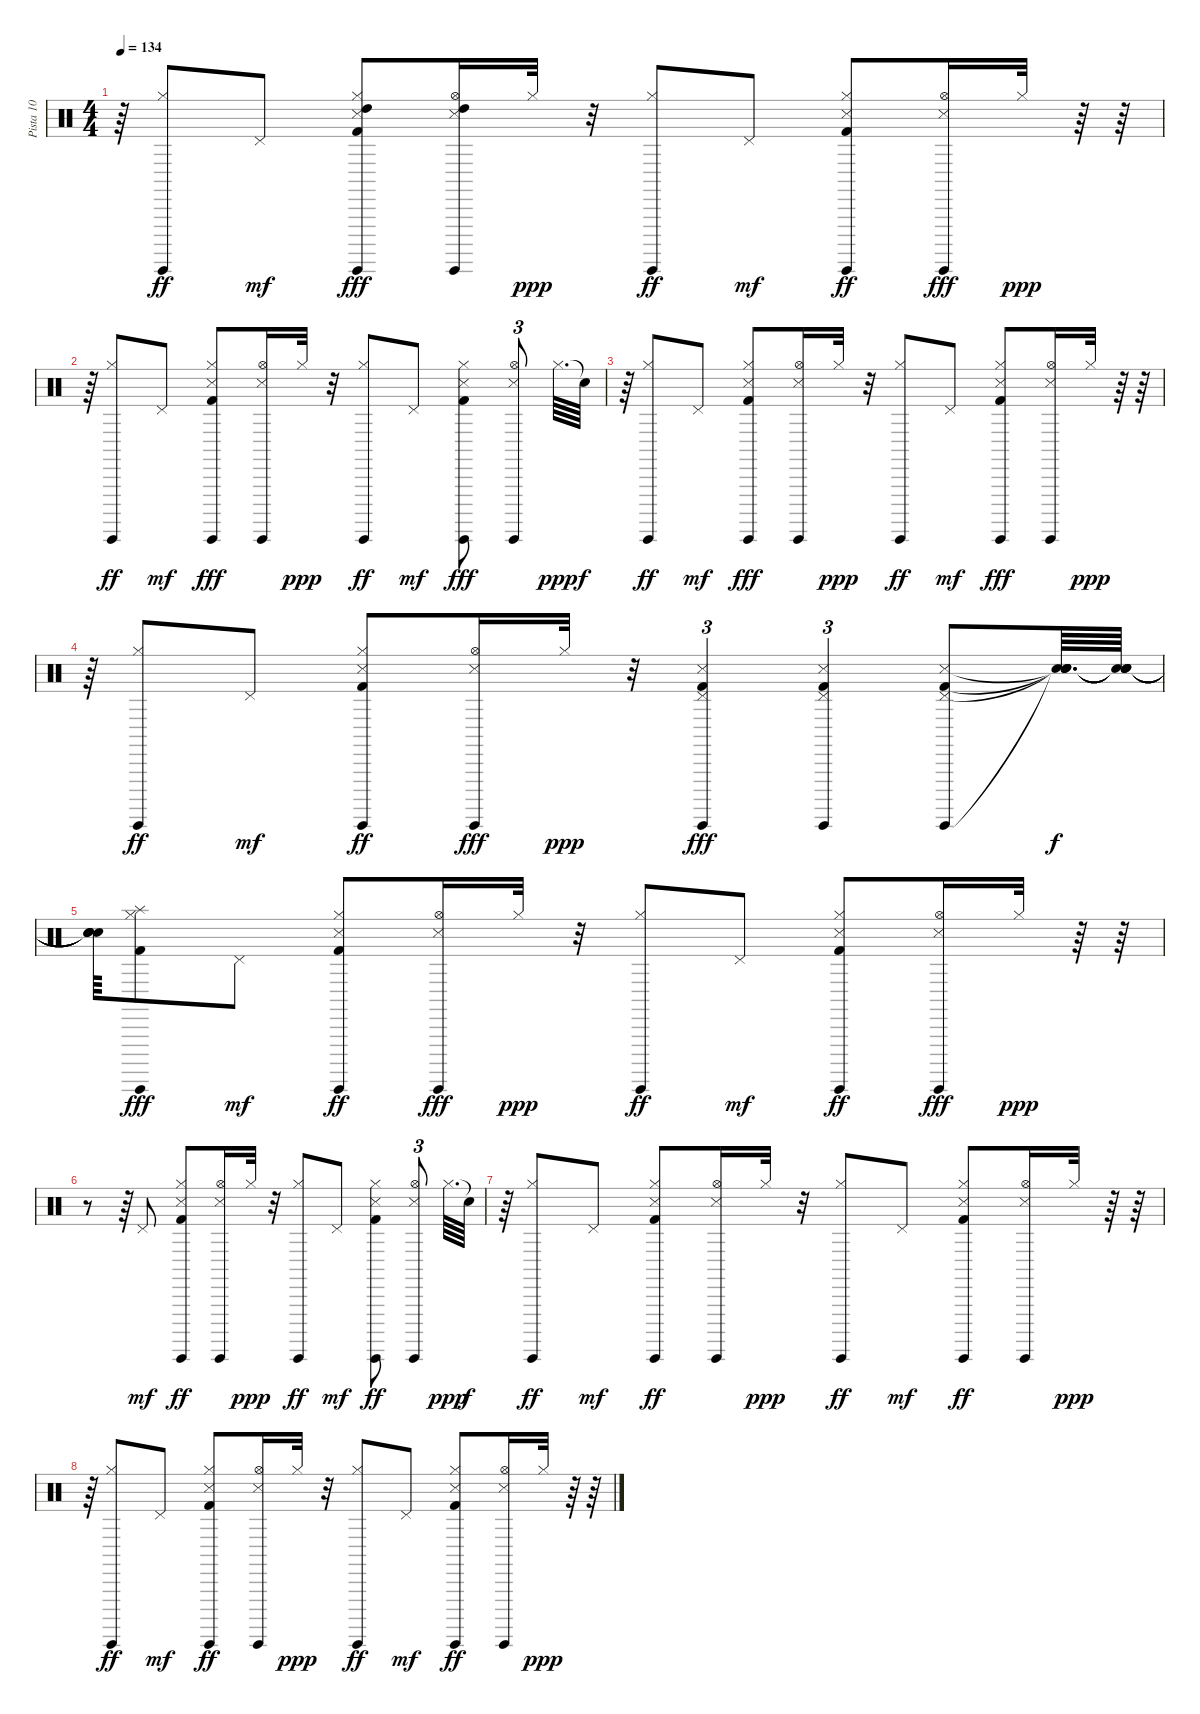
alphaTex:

\track ("Pista 10" "Pista 10") {instrument percussion}
\staff {score}
\articulation defaults
\ts (4 4)
\tempo 134
\clef neutral
\ks c
r.64{dy ppp} ("Hi-Hat (closed)" "Guiro (hit)").8{dy ff} "Pedal Hi-Hat (hit)".8{dy mf} ("Hi-Hat (closed)" "Guiro (hit)" "Snare (side stick) 3" "Kick (hit) 2" "High Tom (hit)").8{dy fff} ("Hi-Hat (open)" "Guiro (hit)" "Snare (side stick) 3" "High Tom (hit)").16 "Hi-Hat (closed)".32{dy ppp} r.32 ("Hi-Hat (closed)" "Guiro (hit)").8{dy ff} "Pedal Hi-Hat (hit)".8{dy mf} ("Hi-Hat (closed)" "Guiro (hit)" "Snare (side stick) 3" "Kick (hit) 2").8{dy ff} ("Hi-Hat (open)" "Guiro (hit)" "Snare (side stick) 3").16{dy fff} "Hi-Hat (closed)".32{dy ppp} r.64 r.64 |
r.64 ("Guiro (hit)" "Hi-Hat (closed)").8{dy ff} "Pedal Hi-Hat (hit)".8{dy mf} ("Guiro (hit)" "Hi-Hat (closed)" "Kick (hit) 2" "Snare (side stick) 3").8{dy fff} ("Guiro (hit)" "Hi-Hat (open)" "Snare (side stick) 3").16 "Hi-Hat (closed)".32{dy ppp} r.32 ("Guiro (hit)" "Hi-Hat (closed)").8{dy ff} "Pedal Hi-Hat (hit)".8{dy mf} ("Guiro (hit)" "Hi-Hat (closed)" "Kick (hit) 2" "Snare (side stick) 3").8{dy fff} ("Guiro (hit)" "Hi-Hat (open)" "Snare (side stick) 3").8{tu (3 2)} "Hi-Hat (closed)".64{d dy ppp} "Snare (hit)"{t}.64{dy f} |
r.64 ("Guiro (hit)" "Hi-Hat (closed)").8{dy ff} "Pedal Hi-Hat (hit)".8{dy mf} ("Guiro (hit)" "Hi-Hat (closed)" "Kick (hit) 2" "Snare (side stick) 3").8{dy fff} ("Guiro (hit)" "Hi-Hat (open)" "Snare (side stick) 3").16 "Hi-Hat (closed)".32{dy ppp} r.32 ("Guiro (hit)" "Hi-Hat (closed)").8{dy ff} "Pedal Hi-Hat (hit)".8{dy mf} ("Guiro (hit)" "Hi-Hat (closed)" "Kick (hit) 2" "Snare (side stick) 3").8{dy fff} ("Guiro (hit)" "Hi-Hat (open)" "Snare (side stick) 3").16 "Hi-Hat (closed)".32{dy ppp} r.64 r.64 |
r.64 ("Hi-Hat (closed)" "Guiro (hit)").8{dy ff} "Pedal Hi-Hat (hit)".8{dy mf} ("Hi-Hat (closed)" "Guiro (hit)" "Snare (side stick) 3" "Kick (hit) 2").8{dy ff} ("Hi-Hat (open)" "Guiro (hit)" "Snare (side stick) 3").16{dy fff} "Hi-Hat (closed)".32{dy ppp} r.32 ("Pedal Hi-Hat (hit)" "Guiro (hit)" "Snare (side stick) 3" "Kick (hit) 2").4{tu (3 2) dy fff} ("Pedal Hi-Hat (hit)" "Guiro (hit)" "Snare (side stick) 3" "Kick (hit) 2").4{tu (3 2)} ("Pedal Hi-Hat (hit)" "Guiro (hit)" "Snare (side stick) 3" "Kick (hit) 2").8 ("Snare (hit)"{t} "Snare (hit)"{t} "Snare (hit)"{t} "Snare (hit)"{t}).64{d dy f} ("Snare (hit)"{t} "Snare (hit)"{t} "Snare (hit)"{t} "Snare (hit)"{t}).64 |
("Snare (hit)"{t} "Snare (hit)"{t} "Snare (hit)"{t} "Snare (hit)"{t}).64 ("Hi-Hat (closed)" "Guiro (hit)" "Splash (hit)" "Kick (hit) 2").8{dy fff} "Pedal Hi-Hat (hit)".8{dy mf} ("Hi-Hat (closed)" "Guiro (hit)" "Snare (side stick) 3" "Kick (hit) 2").8{dy ff} ("Hi-Hat (open)" "Guiro (hit)" "Snare (side stick) 3").16{dy fff} "Hi-Hat (closed)".32{dy ppp} r.32 ("Hi-Hat (closed)" "Guiro (hit)").8{dy ff} "Pedal Hi-Hat (hit)".8{dy mf} ("Hi-Hat (closed)" "Guiro (hit)" "Snare (side stick) 3" "Kick (hit) 2").8{dy ff} ("Hi-Hat (open)" "Guiro (hit)" "Snare (side stick) 3").16{dy fff} "Hi-Hat (closed)".32{dy ppp} r.64 r.64 |
r.8 r.64 "Pedal Hi-Hat (hit)".8{dy mf} ("Hi-Hat (closed)" "Snare (side stick) 3" "Kick (hit) 2" "Guiro (hit)").8{dy ff} ("Hi-Hat (open)" "Snare (side stick) 3" "Guiro (hit)").16 "Hi-Hat (closed)".32{dy ppp} r.32 ("Hi-Hat (closed)" "Guiro (hit)").8{dy ff} "Pedal Hi-Hat (hit)".8{dy mf} ("Hi-Hat (closed)" "Snare (side stick) 3" "Kick (hit) 2" "Guiro (hit)").8{dy ff} ("Hi-Hat (open)" "Snare (side stick) 3" "Guiro (hit)").8{tu (3 2)} "Hi-Hat (closed)".64{d dy ppp} "Snare (hit)"{t}.64{dy f} |
r.64 ("Hi-Hat (closed)" "Guiro (hit)").8{dy ff} "Pedal Hi-Hat (hit)".8{dy mf} ("Hi-Hat (closed)" "Snare (side stick) 3" "Kick (hit) 2" "Guiro (hit)").8{dy ff} ("Hi-Hat (open)" "Snare (side stick) 3" "Guiro (hit)").16 "Hi-Hat (closed)".32{dy ppp} r.32 ("Hi-Hat (closed)" "Guiro (hit)").8{dy ff} "Pedal Hi-Hat (hit)".8{dy mf} ("Hi-Hat (closed)" "Snare (side stick) 3" "Kick (hit) 2" "Guiro (hit)").8{dy ff} ("Hi-Hat (open)" "Snare (side stick) 3" "Guiro (hit)").16 "Hi-Hat (closed)".32{dy ppp} r.64 r.64 |
r.64 ("Hi-Hat (closed)" "Guiro (hit)").8{dy ff} "Pedal Hi-Hat (hit)".8{dy mf} ("Hi-Hat (closed)" "Snare (side stick) 3" "Kick (hit) 2" "Guiro (hit)").8{dy ff} ("Hi-Hat (open)" "Snare (side stick) 3" "Guiro (hit)").16 "Hi-Hat (closed)".32{dy ppp} r.32 ("Hi-Hat (closed)" "Guiro (hit)").8{dy ff} "Pedal Hi-Hat (hit)".8{dy mf} ("Hi-Hat (closed)" "Snare (side stick) 3" "Kick (hit) 2" "Guiro (hit)").8{dy ff} ("Hi-Hat (open)" "Snare (side stick) 3" "Guiro (hit)").16 "Hi-Hat (closed)".32{dy ppp} r.64 r.64
